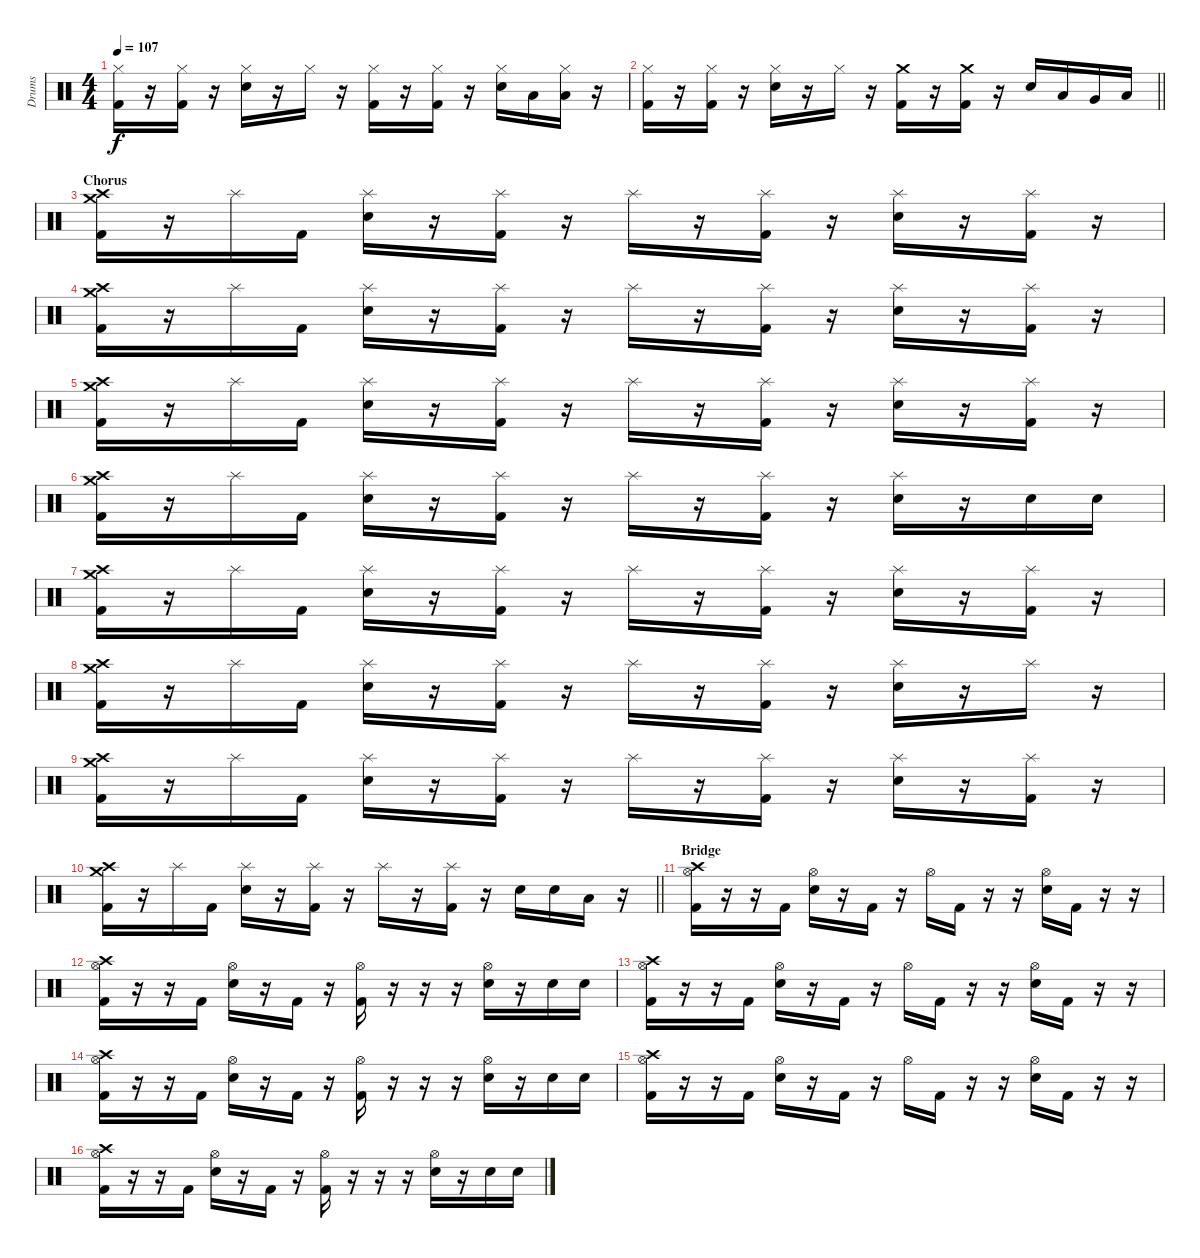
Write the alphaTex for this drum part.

\track ("Drums" "Drums") {instrument percussion}
\staff {score}
\articulation defaults
\ts (4 4)
\tempo 107
\clef neutral
\ks c
("Hi-Hat (closed)" "Kick (hit) 2").16{dy f} r.16 ("Hi-Hat (closed)" "Kick (hit) 2").16 r.16 ("Hi-Hat (closed)" "Electric Snare (hit)").16 r.16 "Hi-Hat (closed)".16 r.16 ("Hi-Hat (closed)" "Kick (hit) 2").16 r.16 ("Hi-Hat (closed)" "Kick (hit) 2").16 r.16 ("Hi-Hat (closed)" "Electric Snare (hit)").16 "Low Tom (hit)".16 ("Hi-Hat (closed)" "Low Floor Tom (hit)").16 r.16 |
\barLineRight lightlight
("Hi-Hat (closed)" "Kick (hit) 2").16 r.16 ("Hi-Hat (closed)" "Kick (hit) 2").16 r.16 ("Hi-Hat (closed)" "Electric Snare (hit)").16 r.16 "Hi-Hat (closed)".16 r.16 ("Crash medium (hit)" "Kick (hit) 2").16 r.16 ("Crash medium (hit)" "Kick (hit) 2").16 r.16 "Electric Snare (hit)".16 "Low Tom (hit)".16 "Very Low Tom (hit)".16 "Low Floor Tom (hit)".16 |
\section ("" "Chorus")
("Crash medium (hit)" "Crash high (hit)" "Kick (hit) 2").16 r.16 "Splash (hit)".16 "Kick (hit) 2".16 ("Splash (hit)" "Electric Snare (hit)").16 r.16 ("Splash (hit)" "Kick (hit) 2").16 r.16 "Splash (hit)".16 r.16 ("Splash (hit)" "Kick (hit) 2").16 r.16 ("Splash (hit)" "Electric Snare (hit)").16 r.16 ("Splash (hit)" "Kick (hit) 2").16 r.16 |
("Crash medium (hit)" "Crash high (hit)" "Kick (hit) 2").16 r.16 "Splash (hit)".16 "Kick (hit) 2".16 ("Splash (hit)" "Electric Snare (hit)").16 r.16 ("Splash (hit)" "Kick (hit) 2").16 r.16 "Splash (hit)".16 r.16 ("Splash (hit)" "Kick (hit) 2").16 r.16 ("Splash (hit)" "Electric Snare (hit)").16 r.16 ("Splash (hit)" "Kick (hit) 2").16 r.16 |
("Crash medium (hit)" "Crash high (hit)" "Kick (hit) 2").16 r.16 "Splash (hit)".16 "Kick (hit) 2".16 ("Splash (hit)" "Electric Snare (hit)").16 r.16 ("Splash (hit)" "Kick (hit) 2").16 r.16 "Splash (hit)".16 r.16 ("Splash (hit)" "Kick (hit) 2").16 r.16 ("Splash (hit)" "Electric Snare (hit)").16 r.16 ("Splash (hit)" "Kick (hit) 2").16 r.16 |
("Crash medium (hit)" "Crash high (hit)" "Kick (hit) 2").16 r.16 "Splash (hit)".16 "Kick (hit) 2".16 ("Splash (hit)" "Electric Snare (hit)").16 r.16 ("Splash (hit)" "Kick (hit) 2").16 r.16 "Splash (hit)".16 r.16 ("Splash (hit)" "Kick (hit) 2").16 r.16 ("Splash (hit)" "Electric Snare (hit)").16 r.16 "Electric Snare (hit)".16 "Electric Snare (hit)".16 |
("Crash medium (hit)" "Crash high (hit)" "Kick (hit) 2").16 r.16 "Splash (hit)".16 "Kick (hit) 2".16 ("Splash (hit)" "Electric Snare (hit)").16 r.16 ("Splash (hit)" "Kick (hit) 2").16 r.16 "Splash (hit)".16 r.16 ("Splash (hit)" "Kick (hit) 2").16 r.16 ("Splash (hit)" "Electric Snare (hit)").16 r.16 ("Splash (hit)" "Kick (hit) 2").16 r.16 |
("Crash medium (hit)" "Crash high (hit)" "Kick (hit) 2").16 r.16 "Splash (hit)".16 "Kick (hit) 2".16 ("Splash (hit)" "Electric Snare (hit)").16 r.16 ("Splash (hit)" "Kick (hit) 2").16 r.16 "Splash (hit)".16 r.16 ("Splash (hit)" "Kick (hit) 2").16 r.16 ("Splash (hit)" "Electric Snare (hit)").16 r.16 "Splash (hit)".16 r.16 |
("Crash medium (hit)" "Crash high (hit)" "Kick (hit) 2").16 r.16 "Splash (hit)".16 "Kick (hit) 2".16 ("Splash (hit)" "Electric Snare (hit)").16 r.16 ("Splash (hit)" "Kick (hit) 2").16 r.16 "Splash (hit)".16 r.16 ("Splash (hit)" "Kick (hit) 2").16 r.16 ("Splash (hit)" "Electric Snare (hit)").16 r.16 ("Splash (hit)" "Kick (hit) 2").16 r.16 |
\barLineRight lightlight
("Crash medium (hit)" "Crash high (hit)" "Kick (hit) 2").16 r.16 "Splash (hit)".16 "Kick (hit) 2".16 ("Splash (hit)" "Electric Snare (hit)").16 r.16 ("Splash (hit)" "Kick (hit) 2").16 r.16 "Splash (hit)".16 r.16 ("Splash (hit)" "Kick (hit) 2").16 r.16 "Electric Snare (hit)".16 "Electric Snare (hit)".16 "Low Floor Tom (hit)".16 r.16 |
\section ("" "Bridge")
("Crash high (hit)" "Hi-Hat (open)" "Kick (hit) 2").16 r.16 r.16 "Kick (hit) 2".16 ("Hi-Hat (open)" "Electric Snare (hit)").16 r.16 "Kick (hit) 2".16 r.16 "Hi-Hat (open)".16 "Kick (hit) 2".16 r.16 r.16 ("Hi-Hat (open)" "Electric Snare (hit)").16 "Kick (hit) 2".16 r.16 r.16 |
("Crash high (hit)" "Hi-Hat (open)" "Kick (hit) 2").16 r.16 r.16 "Kick (hit) 2".16 ("Hi-Hat (open)" "Electric Snare (hit)").16 r.16 "Kick (hit) 2".16 r.16 ("Hi-Hat (open)" "Kick (hit) 2").16 r.16 r.16 r.16 ("Hi-Hat (open)" "Electric Snare (hit)").16 r.16 "Electric Snare (hit)".16 "Electric Snare (hit)".16 |
("Crash high (hit)" "Hi-Hat (open)" "Kick (hit) 2").16 r.16 r.16 "Kick (hit) 2".16 ("Hi-Hat (open)" "Electric Snare (hit)").16 r.16 "Kick (hit) 2".16 r.16 "Hi-Hat (open)".16 "Kick (hit) 2".16 r.16 r.16 ("Hi-Hat (open)" "Electric Snare (hit)").16 "Kick (hit) 2".16 r.16 r.16 |
("Crash high (hit)" "Hi-Hat (open)" "Kick (hit) 2").16 r.16 r.16 "Kick (hit) 2".16 ("Hi-Hat (open)" "Electric Snare (hit)").16 r.16 "Kick (hit) 2".16 r.16 ("Hi-Hat (open)" "Kick (hit) 2").16 r.16 r.16 r.16 ("Hi-Hat (open)" "Electric Snare (hit)").16 r.16 "Electric Snare (hit)".16 "Electric Snare (hit)".16 |
("Crash high (hit)" "Hi-Hat (open)" "Kick (hit) 2").16 r.16 r.16 "Kick (hit) 2".16 ("Hi-Hat (open)" "Electric Snare (hit)").16 r.16 "Kick (hit) 2".16 r.16 "Hi-Hat (open)".16 "Kick (hit) 2".16 r.16 r.16 ("Hi-Hat (open)" "Electric Snare (hit)").16 "Kick (hit) 2".16 r.16 r.16 |
("Crash high (hit)" "Hi-Hat (open)" "Kick (hit) 2").16 r.16 r.16 "Kick (hit) 2".16 ("Hi-Hat (open)" "Electric Snare (hit)").16 r.16 "Kick (hit) 2".16 r.16 ("Hi-Hat (open)" "Kick (hit) 2").16 r.16 r.16 r.16 ("Hi-Hat (open)" "Electric Snare (hit)").16 r.16 "Electric Snare (hit)".16 "Electric Snare (hit)".16
